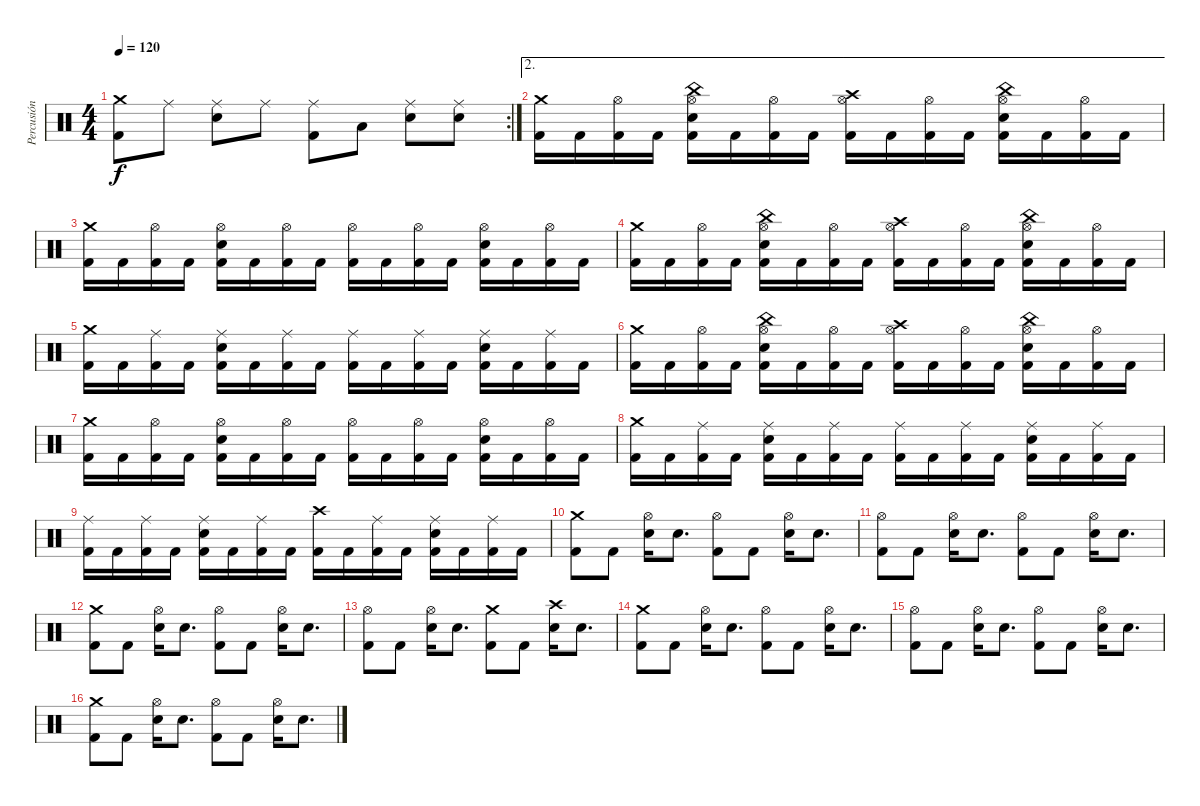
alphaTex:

\track ("Percusión" "Percusión") {instrument percussion}
\staff {score}
\articulation defaults
\rc 2
\ts (4 4)
\tempo 120
\clef neutral
\ks c
("Crash medium (hit)" "Kick (hit) 2").8{dy f} "Ride (middle)".8 ("Ride (middle)" "Electric Snare (hit)").8 "Ride (middle)".8 ("Ride (middle)" "Kick (hit) 2").8 "Low Tom (hit)".8 ("Ride (middle)" "Electric Snare (hit)").8 ("Ride (middle)" "Electric Snare (hit)").8 |
\ae 2
("Crash medium (hit)" "Kick (hit) 2").16 "Kick (hit) 2".16 ("Hi-Hat (open)" "Kick (hit) 2").16 "Kick (hit) 2".16 ("China (hit)" "Hi-Hat (open)" "Electric Snare (hit)" "Kick (hit) 2").16 "Kick (hit) 2".16 ("Hi-Hat (open)" "Kick (hit) 2").16 "Kick (hit) 2".16 ("Crash high (hit)" "Hi-Hat (open)" "Kick (hit) 2").16 "Kick (hit) 2".16 ("Hi-Hat (open)" "Kick (hit) 2").16 "Kick (hit) 2".16 ("China (hit)" "Hi-Hat (open)" "Electric Snare (hit)" "Kick (hit) 2").16 "Kick (hit) 2".16 ("Hi-Hat (open)" "Kick (hit) 2").16 "Kick (hit) 2".16 |
("Crash medium (hit)" "Kick (hit) 2").16 "Kick (hit) 2".16 ("Hi-Hat (open)" "Kick (hit) 2").16 "Kick (hit) 2".16 ("Hi-Hat (open)" "Electric Snare (hit)" "Kick (hit) 2").16 "Kick (hit) 2".16 ("Hi-Hat (open)" "Kick (hit) 2").16 "Kick (hit) 2".16 ("Hi-Hat (open)" "Kick (hit) 2").16 "Kick (hit) 2".16 ("Hi-Hat (open)" "Kick (hit) 2").16 "Kick (hit) 2".16 ("Hi-Hat (open)" "Electric Snare (hit)" "Kick (hit) 2").16 "Kick (hit) 2".16 ("Hi-Hat (open)" "Kick (hit) 2").16 "Kick (hit) 2".16 |
("Crash medium (hit)" "Kick (hit) 2").16 "Kick (hit) 2".16 ("Hi-Hat (open)" "Kick (hit) 2").16 "Kick (hit) 2".16 ("China (hit)" "Hi-Hat (open)" "Electric Snare (hit)" "Kick (hit) 2").16 "Kick (hit) 2".16 ("Hi-Hat (open)" "Kick (hit) 2").16 "Kick (hit) 2".16 ("Crash high (hit)" "Hi-Hat (open)" "Kick (hit) 2").16 "Kick (hit) 2".16 ("Hi-Hat (open)" "Kick (hit) 2").16 "Kick (hit) 2".16 ("China (hit)" "Hi-Hat (open)" "Electric Snare (hit)" "Kick (hit) 2").16 "Kick (hit) 2".16 ("Hi-Hat (open)" "Kick (hit) 2").16 "Kick (hit) 2".16 |
("Crash medium (hit)" "Kick (hit) 2").16 "Kick (hit) 2".16 ("Ride (middle)" "Kick (hit) 2").16 "Kick (hit) 2".16 ("Ride (middle)" "Electric Snare (hit)" "Kick (hit) 2").16 "Kick (hit) 2".16 ("Ride (middle)" "Kick (hit) 2").16 "Kick (hit) 2".16 ("Ride (middle)" "Kick (hit) 2").16 "Kick (hit) 2".16 ("Ride (middle)" "Kick (hit) 2").16 "Kick (hit) 2".16 ("Ride (middle)" "Electric Snare (hit)" "Kick (hit) 2").16 "Kick (hit) 2".16 ("Ride (middle)" "Kick (hit) 2").16 "Kick (hit) 2".16 |
("Crash medium (hit)" "Kick (hit) 2").16 "Kick (hit) 2".16 ("Hi-Hat (open)" "Kick (hit) 2").16 "Kick (hit) 2".16 ("China (hit)" "Hi-Hat (open)" "Electric Snare (hit)" "Kick (hit) 2").16 "Kick (hit) 2".16 ("Hi-Hat (open)" "Kick (hit) 2").16 "Kick (hit) 2".16 ("Crash high (hit)" "Hi-Hat (open)" "Kick (hit) 2").16 "Kick (hit) 2".16 ("Hi-Hat (open)" "Kick (hit) 2").16 "Kick (hit) 2".16 ("China (hit)" "Hi-Hat (open)" "Electric Snare (hit)" "Kick (hit) 2").16 "Kick (hit) 2".16 ("Hi-Hat (open)" "Kick (hit) 2").16 "Kick (hit) 2".16 |
("Crash medium (hit)" "Kick (hit) 2").16 "Kick (hit) 2".16 ("Hi-Hat (open)" "Kick (hit) 2").16 "Kick (hit) 2".16 ("Hi-Hat (open)" "Electric Snare (hit)" "Kick (hit) 2").16 "Kick (hit) 2".16 ("Hi-Hat (open)" "Kick (hit) 2").16 "Kick (hit) 2".16 ("Hi-Hat (open)" "Kick (hit) 2").16 "Kick (hit) 2".16 ("Hi-Hat (open)" "Kick (hit) 2").16 "Kick (hit) 2".16 ("Hi-Hat (open)" "Electric Snare (hit)" "Kick (hit) 2").16 "Kick (hit) 2".16 ("Hi-Hat (open)" "Kick (hit) 2").16 "Kick (hit) 2".16 |
("Crash medium (hit)" "Kick (hit) 2").16 "Kick (hit) 2".16 ("Ride (middle)" "Kick (hit) 2").16 "Kick (hit) 2".16 ("Ride (middle)" "Electric Snare (hit)" "Kick (hit) 2").16 "Kick (hit) 2".16 ("Ride (middle)" "Kick (hit) 2").16 "Kick (hit) 2".16 ("Ride (middle)" "Kick (hit) 2").16 "Kick (hit) 2".16 ("Ride (middle)" "Kick (hit) 2").16 "Kick (hit) 2".16 ("Ride (middle)" "Electric Snare (hit)" "Kick (hit) 2").16 "Kick (hit) 2".16 ("Ride (middle)" "Kick (hit) 2").16 "Kick (hit) 2".16 |
("Ride (middle)" "Kick (hit) 2").16 "Kick (hit) 2".16 ("Ride (middle)" "Kick (hit) 2").16 "Kick (hit) 2".16 ("Ride (middle)" "Electric Snare (hit)" "Kick (hit) 2").16 "Kick (hit) 2".16 ("Ride (middle)" "Kick (hit) 2").16 "Kick (hit) 2".16 ("Crash high (hit)" "Kick (hit) 2").16 "Kick (hit) 2".16 ("Ride (middle)" "Kick (hit) 2").16 "Kick (hit) 2".16 ("Ride (middle)" "Electric Snare (hit)" "Kick (hit) 2").16 "Kick (hit) 2".16 ("Ride (middle)" "Kick (hit) 2").16 "Kick (hit) 2".16 |
("Crash medium (hit)" "Kick (hit) 2").8 "Kick (hit) 2".8 ("Hi-Hat (open)" "Electric Snare (hit)").16 "Electric Snare (hit)".8{d} ("Hi-Hat (open)" "Kick (hit) 2").8 "Kick (hit) 2".8 ("Hi-Hat (open)" "Electric Snare (hit)").16 "Electric Snare (hit)".8{d} |
("Hi-Hat (open)" "Kick (hit) 2").8 "Kick (hit) 2".8 ("Hi-Hat (open)" "Electric Snare (hit)").16 "Electric Snare (hit)".8{d} ("Hi-Hat (open)" "Kick (hit) 2").8 "Kick (hit) 2".8 ("Hi-Hat (open)" "Electric Snare (hit)").16 "Electric Snare (hit)".8{d} |
("Crash medium (hit)" "Kick (hit) 2").8 "Kick (hit) 2".8 ("Hi-Hat (open)" "Electric Snare (hit)").16 "Electric Snare (hit)".8{d} ("Hi-Hat (open)" "Kick (hit) 2").8 "Kick (hit) 2".8 ("Hi-Hat (open)" "Electric Snare (hit)").16 "Electric Snare (hit)".8{d} |
("Hi-Hat (open)" "Kick (hit) 2").8 "Kick (hit) 2".8 ("Hi-Hat (open)" "Electric Snare (hit)").16 "Electric Snare (hit)".8{d} ("Crash medium (hit)" "Kick (hit) 2").8 "Kick (hit) 2".8 ("Crash high (hit)" "Electric Snare (hit)").16 "Electric Snare (hit)".8{d} |
("Crash medium (hit)" "Kick (hit) 2").8 "Kick (hit) 2".8 ("Hi-Hat (open)" "Electric Snare (hit)").16 "Electric Snare (hit)".8{d} ("Hi-Hat (open)" "Kick (hit) 2").8 "Kick (hit) 2".8 ("Hi-Hat (open)" "Electric Snare (hit)").16 "Electric Snare (hit)".8{d} |
("Hi-Hat (open)" "Kick (hit) 2").8 "Kick (hit) 2".8 ("Hi-Hat (open)" "Electric Snare (hit)").16 "Electric Snare (hit)".8{d} ("Hi-Hat (open)" "Kick (hit) 2").8 "Kick (hit) 2".8 ("Hi-Hat (open)" "Electric Snare (hit)").16 "Electric Snare (hit)".8{d} |
("Crash medium (hit)" "Kick (hit) 2").8 "Kick (hit) 2".8 ("Hi-Hat (open)" "Electric Snare (hit)").16 "Electric Snare (hit)".8{d} ("Hi-Hat (open)" "Kick (hit) 2").8 "Kick (hit) 2".8 ("Hi-Hat (open)" "Electric Snare (hit)").16 "Electric Snare (hit)".8{d}
